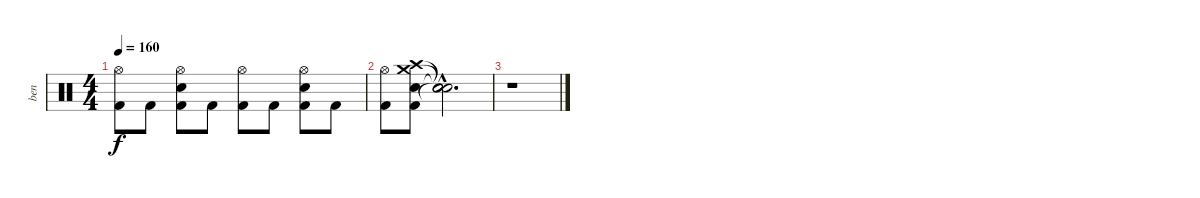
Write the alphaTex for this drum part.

\track ("ben" "ben") {instrument percussion}
\staff {score}
\articulation defaults
\ts (4 4)
\tempo 160
\clef neutral
\ks c
("Hi-Hat (open)" "Kick (hit) 2").8{dy f} "Kick (hit) 2".8 ("Hi-Hat (open)" "Electric Snare (hit)" "Kick (hit) 2").8 "Kick (hit) 2".8 ("Hi-Hat (open)" "Kick (hit) 2").8 "Kick (hit) 2".8 ("Hi-Hat (open)" "Electric Snare (hit)" "Kick (hit) 2").8 "Kick (hit) 2".8 |
("Hi-Hat (open)" "Kick (hit) 2").8 ("Crash medium (hit)" "Crash high (hit)" "Electric Snare (hit)" "Kick (hit) 2").8 ("Snare (hit)"{hac t} "Snare (hit)"{hac t} "Snare (hit)"{hac t} "Snare (hit)"{hac t}).2{d} |
r.1
